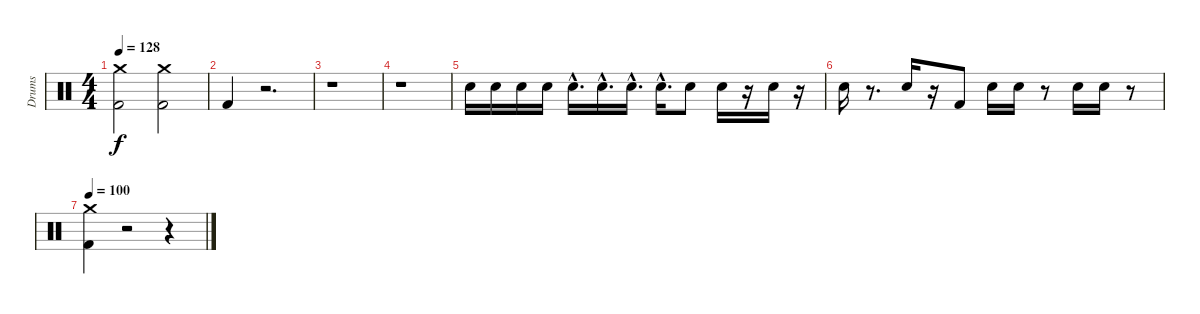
\track ("Drums" "Drums") {instrument percussion}
\staff {score}
\articulation defaults
\ts (4 4)
\tempo 128
\clef neutral
\ks c
("Crash medium (hit)" "Kick (hit) 2").2{dy f} ("Crash medium (hit)" "Kick (hit) 2").2 |
"Kick (hit) 2".4 r.2{d} |
r.1 |
r.1 |
"Snare (hit) 2".16{volume 2} "Snare (hit) 2".16{volume 4} "Snare (hit) 2".16{volume 6} "Snare (hit) 2".16{volume 8} "Snare (hit) 2"{hac}.16{d} "Snare (hit) 2"{hac}.16{d volume 10} "Snare (hit) 2"{hac}.16{d volume 12} "Snare (hit) 2"{hac}.16{d volume 14} "Snare (hit) 2".8{volume 15} "Snare (hit) 2".16 r.16 "Snare (hit) 2".16 r.16 |
"Snare (hit) 2".16 r.8{d} "Snare (hit) 2".16 r.16 "Kick (hit) 2".8 "Electric Snare (hit)".16 "Electric Snare (hit)".16 r.8 "Electric Snare (hit)".16 "Electric Snare (hit)".16 r.8 |
\tempo 100
("Crash medium (hit)" "Kick (hit) 2").4 r.2 r.4
